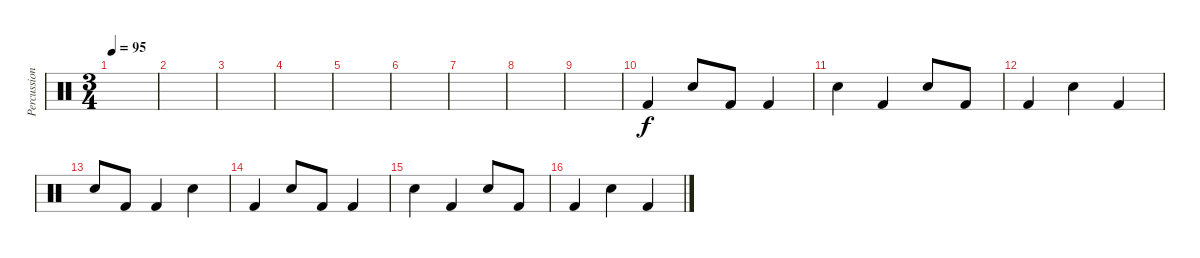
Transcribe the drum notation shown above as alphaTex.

\track ("Percussions" "Percussion") {instrument percussion}
\staff {score}
\articulation defaults
\ts (3 4)
\tempo 95
\clef neutral
\ks c
|
|
|
|
|
|
|
|
|
"Kick (hit) 2".4 "Snare (hit) 2".8 "Kick (hit) 2".8 "Kick (hit) 2".4 |
"Snare (hit) 2".4 "Kick (hit) 2".4 "Snare (hit) 2".8 "Kick (hit) 2".8 |
"Kick (hit) 2".4 "Snare (hit) 2".4 "Kick (hit) 2".4 |
"Snare (hit) 2".8 "Kick (hit) 2".8 "Kick (hit) 2".4 "Snare (hit) 2".4 |
"Kick (hit) 2".4 "Snare (hit) 2".8 "Kick (hit) 2".8 "Kick (hit) 2".4 |
"Snare (hit) 2".4 "Kick (hit) 2".4 "Snare (hit) 2".8 "Kick (hit) 2".8 |
"Kick (hit) 2".4 "Snare (hit) 2".4 "Kick (hit) 2".4
